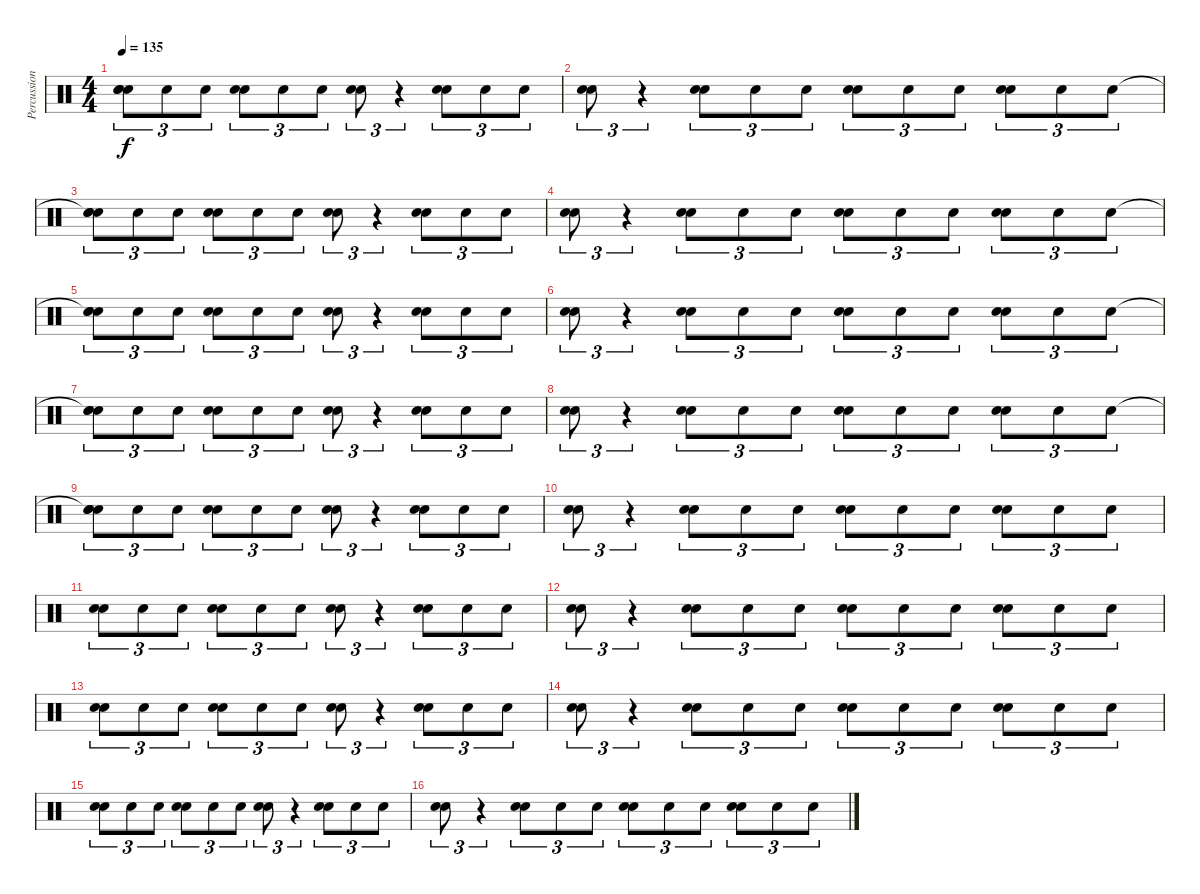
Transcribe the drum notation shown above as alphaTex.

\track ("Percussion" "Percussion") {instrument percussion bank 5}
\staff {score}
\articulation defaults
\ts (4 4)
\tempo 135
\clef neutral
\ks c
("Snare (hit)"{t} "Hand Clap (hit)" "Electric Snare (hit)").8{tu (3 2) dy f} "Electric Snare (hit)".8{tu (3 2)} "Electric Snare (hit)".8{tu (3 2)} ("Hand Clap (hit)" "Electric Snare (hit)").8{tu (3 2)} "Electric Snare (hit)".8{tu (3 2)} "Electric Snare (hit)".8{tu (3 2)} ("Hand Clap (hit)" "Electric Snare (hit)").8{tu (3 2)} r.4{tu (3 2)} ("Hand Clap (hit)" "Electric Snare (hit)").8{tu (3 2)} "Electric Snare (hit)".8{tu (3 2)} "Electric Snare (hit)".8{tu (3 2)} |
("Hand Clap (hit)" "Electric Snare (hit)").8{tu (3 2)} r.4{tu (3 2)} ("Hand Clap (hit)" "Electric Snare (hit)").8{tu (3 2)} "Electric Snare (hit)".8{tu (3 2)} "Electric Snare (hit)".8{tu (3 2)} ("Hand Clap (hit)" "Electric Snare (hit)").8{tu (3 2)} "Electric Snare (hit)".8{tu (3 2)} "Electric Snare (hit)".8{tu (3 2)} ("Hand Clap (hit)" "Electric Snare (hit)").8{tu (3 2)} "Electric Snare (hit)".8{tu (3 2)} "Electric Snare (hit)".8{tu (3 2)} |
("Snare (hit)"{t} "Hand Clap (hit)" "Electric Snare (hit)").8{tu (3 2)} "Electric Snare (hit)".8{tu (3 2)} "Electric Snare (hit)".8{tu (3 2)} ("Hand Clap (hit)" "Electric Snare (hit)").8{tu (3 2)} "Electric Snare (hit)".8{tu (3 2)} "Electric Snare (hit)".8{tu (3 2)} ("Hand Clap (hit)" "Electric Snare (hit)").8{tu (3 2)} r.4{tu (3 2)} ("Hand Clap (hit)" "Electric Snare (hit)").8{tu (3 2)} "Electric Snare (hit)".8{tu (3 2)} "Electric Snare (hit)".8{tu (3 2)} |
("Hand Clap (hit)" "Electric Snare (hit)").8{tu (3 2)} r.4{tu (3 2)} ("Hand Clap (hit)" "Electric Snare (hit)").8{tu (3 2)} "Electric Snare (hit)".8{tu (3 2)} "Electric Snare (hit)".8{tu (3 2)} ("Hand Clap (hit)" "Electric Snare (hit)").8{tu (3 2)} "Electric Snare (hit)".8{tu (3 2)} "Electric Snare (hit)".8{tu (3 2)} ("Hand Clap (hit)" "Electric Snare (hit)").8{tu (3 2)} "Electric Snare (hit)".8{tu (3 2)} "Electric Snare (hit)".8{tu (3 2)} |
("Snare (hit)"{t} "Hand Clap (hit)" "Electric Snare (hit)").8{tu (3 2)} "Electric Snare (hit)".8{tu (3 2)} "Electric Snare (hit)".8{tu (3 2)} ("Hand Clap (hit)" "Electric Snare (hit)").8{tu (3 2)} "Electric Snare (hit)".8{tu (3 2)} "Electric Snare (hit)".8{tu (3 2)} ("Hand Clap (hit)" "Electric Snare (hit)").8{tu (3 2)} r.4{tu (3 2)} ("Hand Clap (hit)" "Electric Snare (hit)").8{tu (3 2)} "Electric Snare (hit)".8{tu (3 2)} "Electric Snare (hit)".8{tu (3 2)} |
("Hand Clap (hit)" "Electric Snare (hit)").8{tu (3 2)} r.4{tu (3 2)} ("Hand Clap (hit)" "Electric Snare (hit)").8{tu (3 2)} "Electric Snare (hit)".8{tu (3 2)} "Electric Snare (hit)".8{tu (3 2)} ("Hand Clap (hit)" "Electric Snare (hit)").8{tu (3 2)} "Electric Snare (hit)".8{tu (3 2)} "Electric Snare (hit)".8{tu (3 2)} ("Hand Clap (hit)" "Electric Snare (hit)").8{tu (3 2)} "Electric Snare (hit)".8{tu (3 2)} "Electric Snare (hit)".8{tu (3 2)} |
("Snare (hit)"{t} "Hand Clap (hit)" "Electric Snare (hit)").8{tu (3 2)} "Electric Snare (hit)".8{tu (3 2)} "Electric Snare (hit)".8{tu (3 2)} ("Hand Clap (hit)" "Electric Snare (hit)").8{tu (3 2)} "Electric Snare (hit)".8{tu (3 2)} "Electric Snare (hit)".8{tu (3 2)} ("Hand Clap (hit)" "Electric Snare (hit)").8{tu (3 2)} r.4{tu (3 2)} ("Hand Clap (hit)" "Electric Snare (hit)").8{tu (3 2)} "Electric Snare (hit)".8{tu (3 2)} "Electric Snare (hit)".8{tu (3 2)} |
("Hand Clap (hit)" "Electric Snare (hit)").8{tu (3 2)} r.4{tu (3 2)} ("Hand Clap (hit)" "Electric Snare (hit)").8{tu (3 2)} "Electric Snare (hit)".8{tu (3 2)} "Electric Snare (hit)".8{tu (3 2)} ("Hand Clap (hit)" "Electric Snare (hit)").8{tu (3 2)} "Electric Snare (hit)".8{tu (3 2)} "Electric Snare (hit)".8{tu (3 2)} ("Hand Clap (hit)" "Electric Snare (hit)").8{tu (3 2)} "Electric Snare (hit)".8{tu (3 2)} "Electric Snare (hit)".8{tu (3 2)} |
("Snare (hit)"{t} "Hand Clap (hit)" "Electric Snare (hit)").8{tu (3 2)} "Electric Snare (hit)".8{tu (3 2)} "Electric Snare (hit)".8{tu (3 2)} ("Hand Clap (hit)" "Electric Snare (hit)").8{tu (3 2)} "Electric Snare (hit)".8{tu (3 2)} "Electric Snare (hit)".8{tu (3 2)} ("Hand Clap (hit)" "Electric Snare (hit)").8{tu (3 2)} r.4{tu (3 2)} ("Hand Clap (hit)" "Electric Snare (hit)").8{tu (3 2)} "Electric Snare (hit)".8{tu (3 2)} "Electric Snare (hit)".8{tu (3 2)} |
("Hand Clap (hit)" "Electric Snare (hit)").8{tu (3 2)} r.4{tu (3 2)} ("Hand Clap (hit)" "Electric Snare (hit)").8{tu (3 2)} "Electric Snare (hit)".8{tu (3 2)} "Electric Snare (hit)".8{tu (3 2)} ("Hand Clap (hit)" "Electric Snare (hit)").8{tu (3 2)} "Electric Snare (hit)".8{tu (3 2)} "Electric Snare (hit)".8{tu (3 2)} ("Hand Clap (hit)" "Electric Snare (hit)").8{tu (3 2)} "Electric Snare (hit)".8{tu (3 2)} "Electric Snare (hit)".8{tu (3 2)} |
("Hand Clap (hit)" "Electric Snare (hit)").8{tu (3 2)} "Electric Snare (hit)".8{tu (3 2)} "Electric Snare (hit)".8{tu (3 2)} ("Hand Clap (hit)" "Electric Snare (hit)").8{tu (3 2)} "Electric Snare (hit)".8{tu (3 2)} "Electric Snare (hit)".8{tu (3 2)} ("Hand Clap (hit)" "Electric Snare (hit)").8{tu (3 2)} r.4{tu (3 2)} ("Hand Clap (hit)" "Electric Snare (hit)").8{tu (3 2)} "Electric Snare (hit)".8{tu (3 2)} "Electric Snare (hit)".8{tu (3 2)} |
("Hand Clap (hit)" "Electric Snare (hit)").8{tu (3 2)} r.4{tu (3 2)} ("Hand Clap (hit)" "Electric Snare (hit)").8{tu (3 2)} "Electric Snare (hit)".8{tu (3 2)} "Electric Snare (hit)".8{tu (3 2)} ("Hand Clap (hit)" "Electric Snare (hit)").8{tu (3 2)} "Electric Snare (hit)".8{tu (3 2)} "Electric Snare (hit)".8{tu (3 2)} ("Hand Clap (hit)" "Electric Snare (hit)").8{tu (3 2)} "Electric Snare (hit)".8{tu (3 2)} "Electric Snare (hit)".8{tu (3 2)} |
("Hand Clap (hit)" "Electric Snare (hit)").8{tu (3 2)} "Electric Snare (hit)".8{tu (3 2)} "Electric Snare (hit)".8{tu (3 2)} ("Hand Clap (hit)" "Electric Snare (hit)").8{tu (3 2)} "Electric Snare (hit)".8{tu (3 2)} "Electric Snare (hit)".8{tu (3 2)} ("Hand Clap (hit)" "Electric Snare (hit)").8{tu (3 2)} r.4{tu (3 2)} ("Hand Clap (hit)" "Electric Snare (hit)").8{tu (3 2)} "Electric Snare (hit)".8{tu (3 2)} "Electric Snare (hit)".8{tu (3 2)} |
("Hand Clap (hit)" "Electric Snare (hit)").8{tu (3 2)} r.4{tu (3 2)} ("Hand Clap (hit)" "Electric Snare (hit)").8{tu (3 2)} "Electric Snare (hit)".8{tu (3 2)} "Electric Snare (hit)".8{tu (3 2)} ("Hand Clap (hit)" "Electric Snare (hit)").8{tu (3 2)} "Electric Snare (hit)".8{tu (3 2)} "Electric Snare (hit)".8{tu (3 2)} ("Hand Clap (hit)" "Electric Snare (hit)").8{tu (3 2)} "Electric Snare (hit)".8{tu (3 2)} "Electric Snare (hit)".8{tu (3 2)} |
("Hand Clap (hit)" "Electric Snare (hit)").8{tu (3 2)} "Electric Snare (hit)".8{tu (3 2)} "Electric Snare (hit)".8{tu (3 2)} ("Hand Clap (hit)" "Electric Snare (hit)").8{tu (3 2)} "Electric Snare (hit)".8{tu (3 2)} "Electric Snare (hit)".8{tu (3 2)} ("Hand Clap (hit)" "Electric Snare (hit)").8{tu (3 2)} r.4{tu (3 2)} ("Hand Clap (hit)" "Electric Snare (hit)").8{tu (3 2)} "Electric Snare (hit)".8{tu (3 2)} "Electric Snare (hit)".8{tu (3 2)} |
("Hand Clap (hit)" "Electric Snare (hit)").8{tu (3 2)} r.4{tu (3 2)} ("Hand Clap (hit)" "Electric Snare (hit)").8{tu (3 2)} "Electric Snare (hit)".8{tu (3 2)} "Electric Snare (hit)".8{tu (3 2)} ("Hand Clap (hit)" "Electric Snare (hit)").8{tu (3 2)} "Electric Snare (hit)".8{tu (3 2)} "Electric Snare (hit)".8{tu (3 2)} ("Hand Clap (hit)" "Electric Snare (hit)").8{tu (3 2)} "Electric Snare (hit)".8{tu (3 2)} "Electric Snare (hit)".8{tu (3 2)}
